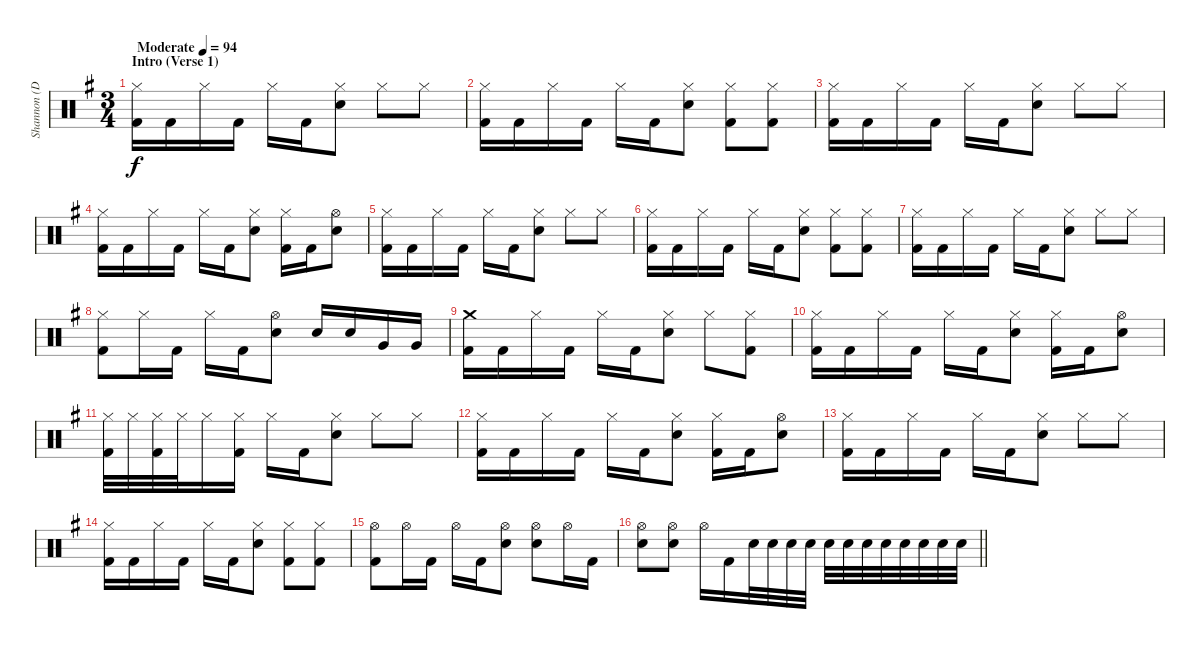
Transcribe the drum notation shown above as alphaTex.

\track ("Shannon (Drums)" "Shannon (D") {instrument percussion}
\staff {score}
\articulation defaults
\ts (3 4)
\section ("" "Intro (Verse 1)")
\tempo (94 "Moderate")
\clef neutral
\ks g
("Hi-Hat (closed)" "Kick (hit) 2").16{dy f} "Kick (hit) 2".16 "Hi-Hat (closed)".16 "Kick (hit) 2".16 "Hi-Hat (closed)".16 "Kick (hit) 2".16 ("Hi-Hat (closed)" "Electric Snare (hit)").8 "Hi-Hat (closed)".8 "Hi-Hat (closed)".8 |
("Hi-Hat (closed)" "Kick (hit) 2").16 "Kick (hit) 2".16 "Hi-Hat (closed)".16 "Kick (hit) 2".16 "Hi-Hat (closed)".16 "Kick (hit) 2".16 ("Hi-Hat (closed)" "Electric Snare (hit)").8 ("Hi-Hat (closed)" "Kick (hit) 2").8 ("Hi-Hat (closed)" "Kick (hit) 2").8 |
("Hi-Hat (closed)" "Kick (hit) 2").16 "Kick (hit) 2".16 "Hi-Hat (closed)".16 "Kick (hit) 2".16 "Hi-Hat (closed)".16 "Kick (hit) 2".16 ("Hi-Hat (closed)" "Electric Snare (hit)").8 "Hi-Hat (closed)".8 "Hi-Hat (closed)".8 |
("Hi-Hat (closed)" "Kick (hit) 2").16 "Kick (hit) 2".16 "Hi-Hat (closed)".16 "Kick (hit) 2".16 "Hi-Hat (closed)".16 "Kick (hit) 2".16 ("Hi-Hat (closed)" "Electric Snare (hit)").8 ("Hi-Hat (closed)" "Kick (hit) 2").16 "Kick (hit) 2".16 ("Hi-Hat (open)" "Electric Snare (hit)").8 |
("Hi-Hat (closed)" "Kick (hit) 2").16 "Kick (hit) 2".16 "Hi-Hat (closed)".16 "Kick (hit) 2".16 "Hi-Hat (closed)".16 "Kick (hit) 2".16 ("Hi-Hat (closed)" "Electric Snare (hit)").8 "Hi-Hat (closed)".8 "Hi-Hat (closed)".8 |
("Hi-Hat (closed)" "Kick (hit) 2").16 "Kick (hit) 2".16 "Hi-Hat (closed)".16 "Kick (hit) 2".16 "Hi-Hat (closed)".16 "Kick (hit) 2".16 ("Hi-Hat (closed)" "Electric Snare (hit)").8 ("Hi-Hat (closed)" "Kick (hit) 2").8 ("Hi-Hat (closed)" "Kick (hit) 2").8 |
("Hi-Hat (closed)" "Kick (hit) 2").16 "Kick (hit) 2".16 "Hi-Hat (closed)".16 "Kick (hit) 2".16 "Hi-Hat (closed)".16 "Kick (hit) 2".16 ("Hi-Hat (closed)" "Electric Snare (hit)").8 "Hi-Hat (closed)".8 "Hi-Hat (closed)".8 |
("Hi-Hat (closed)" "Kick (hit) 2").8 "Hi-Hat (closed)".16 "Kick (hit) 2".16 "Hi-Hat (closed)".16 "Kick (hit) 2".16 ("Hi-Hat (open)" "Electric Snare (hit)").8 "Electric Snare (hit)".16 "Electric Snare (hit)".16 "Very Low Tom (hit)".16 "Very Low Tom (hit)".16 |
("Crash medium (hit)" "Kick (hit) 2").16 "Kick (hit) 2".16 "Hi-Hat (closed)".16 "Kick (hit) 2".16 "Hi-Hat (closed)".16 "Kick (hit) 2".16 ("Hi-Hat (closed)" "Electric Snare (hit)").8 "Hi-Hat (closed)".8 ("Hi-Hat (closed)" "Kick (hit) 2").8 |
("Hi-Hat (closed)" "Kick (hit) 2").16 "Kick (hit) 2".16 "Hi-Hat (closed)".16 "Kick (hit) 2".16 "Hi-Hat (closed)".16 "Kick (hit) 2".16 ("Hi-Hat (closed)" "Electric Snare (hit)").8 ("Hi-Hat (closed)" "Kick (hit) 2").16 "Kick (hit) 2".16 ("Hi-Hat (open)" "Electric Snare (hit)").8 |
("Hi-Hat (closed)" "Kick (hit) 2").32 "Hi-Hat (closed)".32 ("Hi-Hat (closed)" "Kick (hit) 2").32 "Hi-Hat (closed)".32 "Hi-Hat (closed)".16 ("Hi-Hat (closed)" "Kick (hit) 2").16 "Hi-Hat (closed)".16 "Kick (hit) 2".16 ("Hi-Hat (closed)" "Electric Snare (hit)").8 "Hi-Hat (closed)".8 "Hi-Hat (closed)".8 |
("Hi-Hat (closed)" "Kick (hit) 2").16 "Kick (hit) 2".16 "Hi-Hat (closed)".16 "Kick (hit) 2".16 "Hi-Hat (closed)".16 "Kick (hit) 2".16 ("Hi-Hat (closed)" "Electric Snare (hit)").8 ("Hi-Hat (closed)" "Kick (hit) 2").16 "Kick (hit) 2".16 ("Hi-Hat (open)" "Electric Snare (hit)").8 |
("Hi-Hat (closed)" "Kick (hit) 2").16 "Kick (hit) 2".16 "Hi-Hat (closed)".16 "Kick (hit) 2".16 "Hi-Hat (closed)".16 "Kick (hit) 2".16 ("Hi-Hat (closed)" "Electric Snare (hit)").8 "Hi-Hat (closed)".8 "Hi-Hat (closed)".8 |
("Hi-Hat (closed)" "Kick (hit) 2").16 "Kick (hit) 2".16 "Hi-Hat (closed)".16 "Kick (hit) 2".16 "Hi-Hat (closed)".16 "Kick (hit) 2".16 ("Hi-Hat (closed)" "Electric Snare (hit)").8 ("Hi-Hat (closed)" "Kick (hit) 2").8 ("Hi-Hat (closed)" "Kick (hit) 2").8 |
("Hi-Hat (open)" "Kick (hit) 2").8 "Hi-Hat (open)".16 "Kick (hit) 2".16 "Hi-Hat (open)".16 "Kick (hit) 2".16 ("Hi-Hat (open)" "Electric Snare (hit)").8 ("Hi-Hat (open)" "Electric Snare (hit)").8 "Hi-Hat (open)".16 "Kick (hit) 2".16 |
\barLineRight lightlight
("Hi-Hat (open)" "Electric Snare (hit)").8 ("Hi-Hat (open)" "Electric Snare (hit)").8 "Hi-Hat (open)".16 "Kick (hit) 2".16 "Electric Snare (hit)".32 "Electric Snare (hit)".32 "Electric Snare (hit)".32 "Electric Snare (hit)".32 "Electric Snare (hit)".32 "Electric Snare (hit)".32 "Electric Snare (hit)".32 "Electric Snare (hit)".32 "Electric Snare (hit)".32 "Electric Snare (hit)".32 "Electric Snare (hit)".32 "Electric Snare (hit)".32
